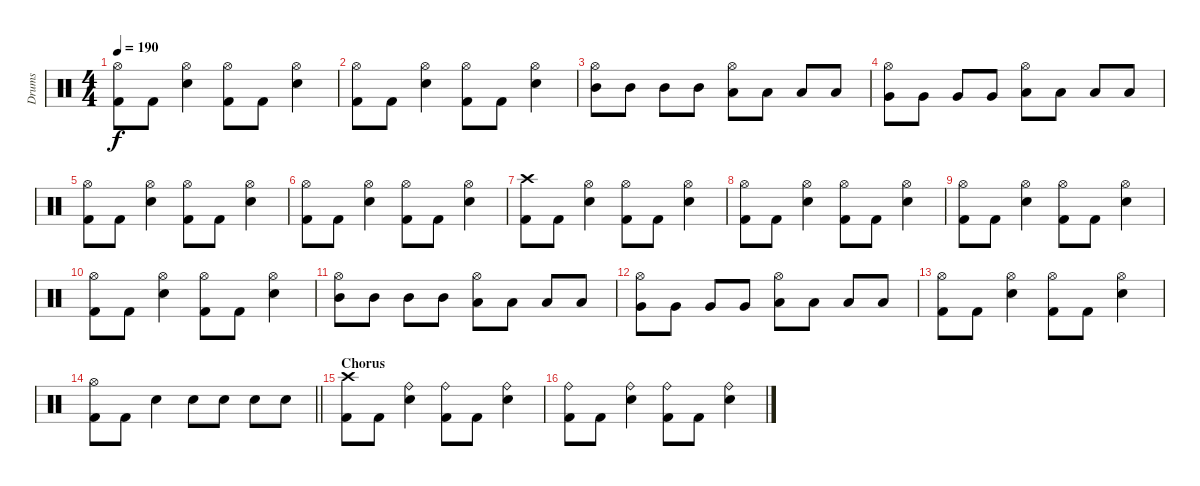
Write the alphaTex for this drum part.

\track ("Drums" "Drums") {instrument percussion}
\staff {score}
\articulation defaults
\ts (4 4)
\tempo 190
\clef neutral
\ks c
("Hi-Hat (open)" "Kick (hit) 2").8{dy f} "Kick (hit) 2".8 ("Hi-Hat (open)" "Snare (hit) 2").4 ("Hi-Hat (open)" "Kick (hit) 2").8 "Kick (hit) 2".8 ("Hi-Hat (open)" "Snare (hit) 2").4 |
("Hi-Hat (open)" "Kick (hit) 2").8 "Kick (hit) 2".8 ("Hi-Hat (open)" "Snare (hit) 2").4 ("Hi-Hat (open)" "Kick (hit) 2").8 "Kick (hit) 2".8 ("Hi-Hat (open)" "Snare (hit) 2").4 |
("Hi-Hat (open)" "Mid Tom (hit)").8 "Mid Tom (hit)".8 "Mid Tom (hit)".8 "Mid Tom (hit)".8 ("Hi-Hat (open)" "Low Tom (hit)").8 "Low Tom (hit)".8 "Low Tom (hit)".8 "Low Tom (hit)".8 |
("Hi-Hat (open)" "Very Low Tom (hit)").8 "Very Low Tom (hit)".8 "Very Low Tom (hit)".8 "Very Low Tom (hit)".8 ("Hi-Hat (open)" "Low Floor Tom (hit)").8 "Low Floor Tom (hit)".8 "Low Floor Tom (hit)".8 "Low Floor Tom (hit)".8 |
("Hi-Hat (open)" "Kick (hit) 2").8 "Kick (hit) 2".8 ("Hi-Hat (open)" "Snare (hit) 2").4 ("Hi-Hat (open)" "Kick (hit) 2").8 "Kick (hit) 2".8 ("Hi-Hat (open)" "Snare (hit) 2").4 |
("Hi-Hat (open)" "Kick (hit) 2").8 "Kick (hit) 2".8 ("Hi-Hat (open)" "Snare (hit) 2").4 ("Hi-Hat (open)" "Kick (hit) 2").8 "Kick (hit) 2".8 ("Hi-Hat (open)" "Snare (hit) 2").4 |
("Crash high (hit)" "Kick (hit) 2").8 "Kick (hit) 2".8 ("Hi-Hat (open)" "Snare (hit) 2").4 ("Hi-Hat (open)" "Kick (hit) 2").8 "Kick (hit) 2".8 ("Hi-Hat (open)" "Snare (hit) 2").4 |
("Hi-Hat (open)" "Kick (hit) 2").8 "Kick (hit) 2".8 ("Hi-Hat (open)" "Snare (hit) 2").4 ("Hi-Hat (open)" "Kick (hit) 2").8 "Kick (hit) 2".8 ("Hi-Hat (open)" "Snare (hit) 2").4 |
("Hi-Hat (open)" "Kick (hit) 2").8 "Kick (hit) 2".8 ("Hi-Hat (open)" "Snare (hit) 2").4 ("Hi-Hat (open)" "Kick (hit) 2").8 "Kick (hit) 2".8 ("Hi-Hat (open)" "Snare (hit) 2").4 |
("Hi-Hat (open)" "Kick (hit) 2").8 "Kick (hit) 2".8 ("Hi-Hat (open)" "Snare (hit) 2").4 ("Hi-Hat (open)" "Kick (hit) 2").8 "Kick (hit) 2".8 ("Hi-Hat (open)" "Snare (hit) 2").4 |
("Hi-Hat (open)" "Mid Tom (hit)").8 "Mid Tom (hit)".8 "Mid Tom (hit)".8 "Mid Tom (hit)".8 ("Hi-Hat (open)" "Low Tom (hit)").8 "Low Tom (hit)".8 "Low Tom (hit)".8 "Low Tom (hit)".8 |
("Hi-Hat (open)" "Very Low Tom (hit)").8 "Very Low Tom (hit)".8 "Very Low Tom (hit)".8 "Very Low Tom (hit)".8 ("Hi-Hat (open)" "Low Floor Tom (hit)").8 "Low Floor Tom (hit)".8 "Low Floor Tom (hit)".8 "Low Floor Tom (hit)".8 |
("Hi-Hat (open)" "Kick (hit) 2").8 "Kick (hit) 2".8 ("Hi-Hat (open)" "Snare (hit) 2").4 ("Hi-Hat (open)" "Kick (hit) 2").8 "Kick (hit) 2".8 ("Hi-Hat (open)" "Snare (hit) 2").4 |
\barLineRight lightlight
("Hi-Hat (open)" "Kick (hit) 2").8 "Kick (hit) 2".8 "Snare (hit) 2".4 "Snare (hit) 2".8 "Snare (hit) 2".8 "Snare (hit) 2".8 "Snare (hit) 2".8 |
\section ("" "Chorus")
("Crash high (hit)" "Kick (hit) 2").8 "Kick (hit) 2".8 ("Ride (bell)" "Snare (hit) 2").4 ("Ride (bell)" "Kick (hit) 2").8 "Kick (hit) 2".8 ("Ride (bell)" "Snare (hit) 2").4 |
("Ride (bell)" "Kick (hit) 2").8 "Kick (hit) 2".8 ("Ride (bell)" "Snare (hit) 2").4 ("Ride (bell)" "Kick (hit) 2").8 "Kick (hit) 2".8 ("Ride (bell)" "Snare (hit) 2").4
